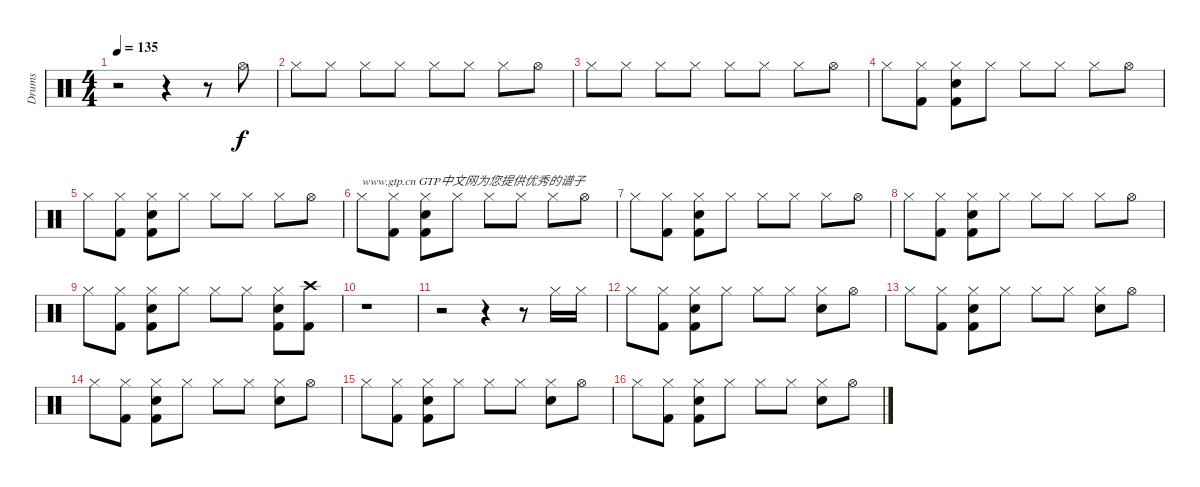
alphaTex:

\track ("Drums" "Drums") {instrument percussion}
\staff {score}
\articulation defaults
\ts (4 4)
\tempo 135
\clef neutral
\ks c
r.2{dy f} r.4 r.8 "Hi-Hat (open)".8 |
"Hi-Hat (closed)".8 "Hi-Hat (closed)".8 "Hi-Hat (closed)".8 "Hi-Hat (closed)".8 "Hi-Hat (closed)".8 "Hi-Hat (closed)".8 "Hi-Hat (closed)".8 "Hi-Hat (open)".8 |
"Hi-Hat (closed)".8 "Hi-Hat (closed)".8 "Hi-Hat (closed)".8 "Hi-Hat (closed)".8 "Hi-Hat (closed)".8 "Hi-Hat (closed)".8 "Hi-Hat (closed)".8 "Hi-Hat (open)".8 |
"Hi-Hat (closed)".8 ("Hi-Hat (closed)" "Kick (hit) 2").8 ("Hi-Hat (closed)" "Kick (hit) 2" "Snare (hit) 2").8 "Hi-Hat (closed)".8 "Hi-Hat (closed)".8 "Hi-Hat (closed)".8 "Hi-Hat (closed)".8 "Hi-Hat (open)".8 |
"Hi-Hat (closed)".8 ("Hi-Hat (closed)" "Kick (hit) 2").8 ("Hi-Hat (closed)" "Kick (hit) 2" "Snare (hit) 2").8 "Hi-Hat (closed)".8 "Hi-Hat (closed)".8 "Hi-Hat (closed)".8 "Hi-Hat (closed)".8 "Hi-Hat (open)".8 |
"Hi-Hat (closed)".8{txt "www.gtp.cn GTP中文网为您提供优秀的谱子"} ("Hi-Hat (closed)" "Kick (hit) 2").8 ("Hi-Hat (closed)" "Kick (hit) 2" "Snare (hit) 2").8 "Hi-Hat (closed)".8 "Hi-Hat (closed)".8 "Hi-Hat (closed)".8 "Hi-Hat (closed)".8 "Hi-Hat (open)".8 |
"Hi-Hat (closed)".8 ("Hi-Hat (closed)" "Kick (hit) 2").8 ("Hi-Hat (closed)" "Kick (hit) 2" "Snare (hit) 2").8 "Hi-Hat (closed)".8 "Hi-Hat (closed)".8 "Hi-Hat (closed)".8 "Hi-Hat (closed)".8 "Hi-Hat (open)".8 |
"Hi-Hat (closed)".8 ("Hi-Hat (closed)" "Kick (hit) 2").8 ("Hi-Hat (closed)" "Kick (hit) 2" "Snare (hit) 2").8 "Hi-Hat (closed)".8 "Hi-Hat (closed)".8 "Hi-Hat (closed)".8 "Hi-Hat (closed)".8 "Hi-Hat (open)".8 |
"Hi-Hat (closed)".8 ("Kick (hit) 2" "Hi-Hat (closed)").8 ("Kick (hit) 2" "Snare (hit) 2" "Hi-Hat (closed)").8 "Hi-Hat (closed)".8 "Hi-Hat (closed)".8 "Hi-Hat (closed)".8 ("Kick (hit) 2" "Hi-Hat (closed)" "Snare (hit) 2").8 ("Kick (hit) 2" "Crash high (hit)").8 |
r.1 |
r.2 r.4 r.8 "Hi-Hat (closed)".16 "Hi-Hat (closed)".16 |
"Hi-Hat (closed)".8 ("Hi-Hat (closed)" "Kick (hit) 2").8 ("Hi-Hat (closed)" "Kick (hit) 2" "Snare (hit) 2").8 "Hi-Hat (closed)".8 "Hi-Hat (closed)".8 "Hi-Hat (closed)".8 ("Hi-Hat (closed)" "Snare (hit) 2").8 "Hi-Hat (open)".8 |
"Hi-Hat (closed)".8 ("Hi-Hat (closed)" "Kick (hit) 2").8 ("Hi-Hat (closed)" "Kick (hit) 2" "Snare (hit) 2").8 "Hi-Hat (closed)".8 "Hi-Hat (closed)".8 "Hi-Hat (closed)".8 ("Hi-Hat (closed)" "Snare (hit) 2").8 "Hi-Hat (open)".8 |
"Hi-Hat (closed)".8 ("Hi-Hat (closed)" "Kick (hit) 2").8 ("Hi-Hat (closed)" "Kick (hit) 2" "Snare (hit) 2").8 "Hi-Hat (closed)".8 "Hi-Hat (closed)".8 "Hi-Hat (closed)".8 ("Hi-Hat (closed)" "Snare (hit) 2").8 "Hi-Hat (open)".8 |
"Hi-Hat (closed)".8 ("Hi-Hat (closed)" "Kick (hit) 2").8 ("Hi-Hat (closed)" "Kick (hit) 2" "Snare (hit) 2").8 "Hi-Hat (closed)".8 "Hi-Hat (closed)".8 "Hi-Hat (closed)".8 ("Hi-Hat (closed)" "Snare (hit) 2").8 "Hi-Hat (open)".8 |
"Hi-Hat (closed)".8 ("Hi-Hat (closed)" "Kick (hit) 2").8 ("Hi-Hat (closed)" "Kick (hit) 2" "Snare (hit) 2").8 "Hi-Hat (closed)".8 "Hi-Hat (closed)".8 "Hi-Hat (closed)".8 ("Hi-Hat (closed)" "Snare (hit) 2").8 "Hi-Hat (open)".8
